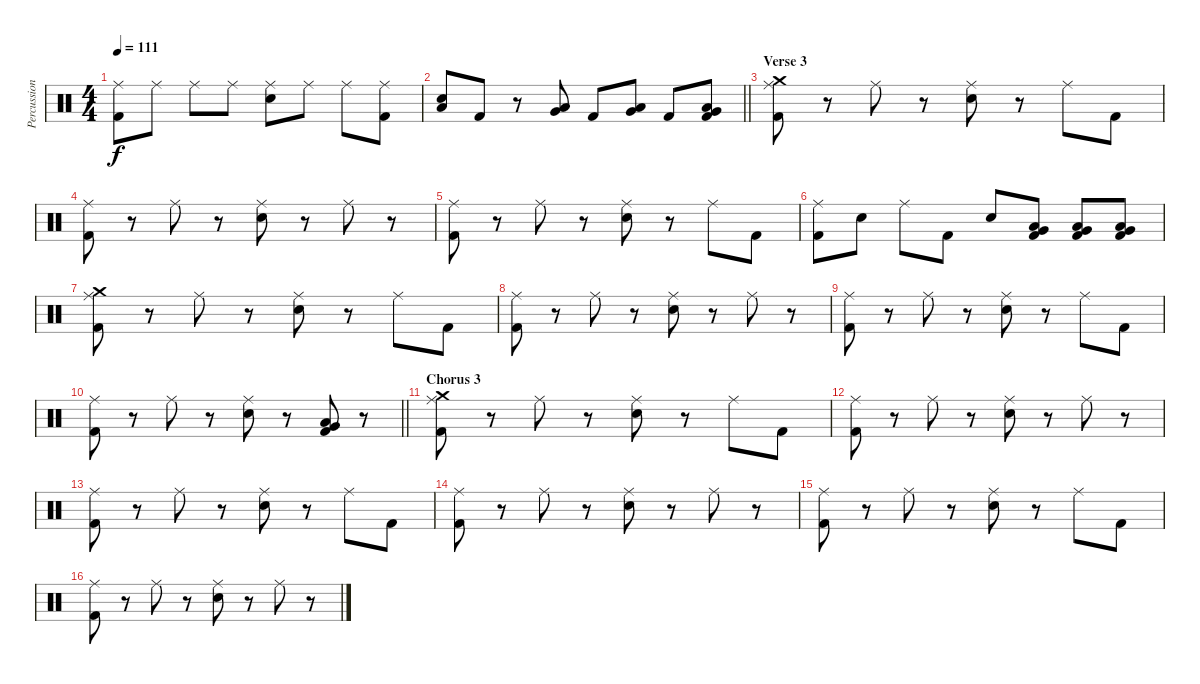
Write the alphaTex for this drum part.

\track ("Percussion" "Percussion") {instrument percussion}
\staff {score}
\articulation defaults
\ts (4 4)
\tempo 111
\clef neutral
\ks c
("Ride (middle)" "Kick (hit) 2").8{dy f} "Ride (middle)".8 "Ride (middle)".8 "Ride (middle)".8 ("Ride (middle)" "Snare (hit) 2").8 "Ride (middle)".8 "Ride (middle)".8 ("Ride (middle)" "Kick (hit) 2").8 |
\barLineRight lightlight
("Low Tom (hit)" "Snare (hit) 2").8 "Kick (hit) 2".8 r.8 ("Low Tom (hit)" "Very Low Tom (hit)").8 "Kick (hit) 2".8 ("Very Low Tom (hit)" "Low Floor Tom (hit)").8 "Kick (hit) 2".8 ("Very Low Tom (hit)" "Low Floor Tom (hit)" "Kick (hit) 2").8 |
\section ("" "Verse 3")
("Ride (middle)" "Crash medium (hit)" "Kick (hit) 2").8 r.8 "Ride (middle)".8 r.8 ("Ride (middle)" "Snare (hit) 2").8 r.8 "Ride (middle)".8 "Kick (hit) 2".8 |
("Ride (middle)" "Kick (hit) 2").8 r.8 "Ride (middle)".8 r.8 ("Ride (middle)" "Snare (hit) 2").8 r.8 "Ride (middle)".8 r.8 |
("Ride (middle)" "Kick (hit) 2").8 r.8 "Ride (middle)".8 r.8 ("Ride (middle)" "Snare (hit) 2").8 r.8 "Ride (middle)".8 "Kick (hit) 2".8 |
("Ride (middle)" "Kick (hit) 2").8 "Snare (hit) 2".8 "Ride (middle)".8 "Kick (hit) 2".8 "Snare (hit) 2".8 ("Low Tom (hit)" "Very Low Tom (hit)" "Kick (hit) 2").8 ("Very Low Tom (hit)" "Low Floor Tom (hit)" "Kick (hit) 2").8 ("Very Low Tom (hit)" "Low Floor Tom (hit)" "Kick (hit) 2").8 |
("Ride (middle)" "Crash medium (hit)" "Kick (hit) 2").8 r.8 "Ride (middle)".8 r.8 ("Ride (middle)" "Snare (hit) 2").8 r.8 "Ride (middle)".8 "Kick (hit) 2".8 |
("Ride (middle)" "Kick (hit) 2").8 r.8 "Ride (middle)".8 r.8 ("Ride (middle)" "Snare (hit) 2").8 r.8 "Ride (middle)".8 r.8 |
("Ride (middle)" "Kick (hit) 2").8 r.8 "Ride (middle)".8 r.8 ("Ride (middle)" "Snare (hit) 2").8 r.8 "Ride (middle)".8 "Kick (hit) 2".8 |
\barLineRight lightlight
("Ride (middle)" "Kick (hit) 2").8 r.8 "Ride (middle)".8 r.8 ("Ride (middle)" "Snare (hit) 2").8 r.8 ("Very Low Tom (hit)" "Low Floor Tom (hit)" "Kick (hit) 2").8 r.8 |
\section ("" "Chorus 3")
("Ride (middle)" "Crash medium (hit)" "Kick (hit) 2").8 r.8 "Ride (middle)".8 r.8 ("Ride (middle)" "Snare (hit) 2").8 r.8 "Ride (middle)".8 "Kick (hit) 2".8 |
("Ride (middle)" "Kick (hit) 2").8 r.8 "Ride (middle)".8 r.8 ("Ride (middle)" "Snare (hit) 2").8 r.8 "Ride (middle)".8 r.8 |
("Ride (middle)" "Kick (hit) 2").8 r.8 "Ride (middle)".8 r.8 ("Ride (middle)" "Snare (hit) 2").8 r.8 "Ride (middle)".8 "Kick (hit) 2".8 |
("Ride (middle)" "Kick (hit) 2").8 r.8 "Ride (middle)".8 r.8 ("Ride (middle)" "Snare (hit) 2").8 r.8 "Ride (middle)".8 r.8 |
("Ride (middle)" "Kick (hit) 2").8 r.8 "Ride (middle)".8 r.8 ("Ride (middle)" "Snare (hit) 2").8 r.8 "Ride (middle)".8 "Kick (hit) 2".8 |
("Ride (middle)" "Kick (hit) 2").8 r.8 "Ride (middle)".8 r.8 ("Ride (middle)" "Snare (hit) 2").8 r.8 "Ride (middle)".8 r.8
